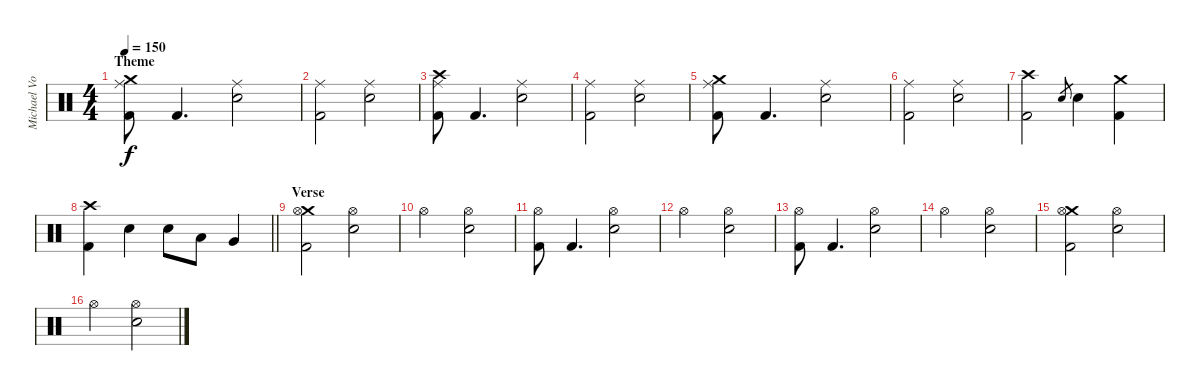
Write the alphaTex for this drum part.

\track ("Michael Von Knorring" "Michael Vo") {instrument percussion}
\staff {score}
\articulation defaults
\ts (4 4)
\section ("" "Theme")
\tempo 150
\clef neutral
\ks c
("Crash medium (hit)" "Ride (middle)" "Kick (hit) 2").8{dy f} "Kick (hit) 2".4{d} ("Ride (middle)" "Snare (hit) 2").2 |
("Ride (middle)" "Kick (hit) 2").2 ("Ride (middle)" "Snare (hit) 2").2 |
("Crash high (hit)" "Ride (middle)" "Kick (hit) 2").8 "Kick (hit) 2".4{d} ("Ride (middle)" "Snare (hit) 2").2 |
("Ride (middle)" "Kick (hit) 2").2 ("Ride (middle)" "Snare (hit) 2").2 |
("Crash medium (hit)" "Ride (middle)" "Kick (hit) 2").8 "Kick (hit) 2".4{d} ("Ride (middle)" "Snare (hit) 2").2 |
("Ride (middle)" "Kick (hit) 2").2 ("Ride (middle)" "Snare (hit) 2").2 |
("Crash high (hit)" "Kick (hit) 2").2 "Snare (hit) 2".8{gr} "Snare (hit) 2".4 ("Crash medium (hit)" "Kick (hit) 2").4 |
\barLineRight lightlight
("Crash high (hit)" "Kick (hit) 2").4 "Snare (hit) 2".4 "Snare (hit) 2".8 "Low Tom (hit)".8 "Very Low Tom (hit)".4 |
\section ("" "Verse")
("Crash medium (hit)" "Hi-Hat (open)" "Kick (hit) 2").2 ("Hi-Hat (open)" "Snare (hit) 2").2 |
"Hi-Hat (open)".2 ("Hi-Hat (open)" "Snare (hit) 2").2 |
("Hi-Hat (open)" "Kick (hit) 2").8 "Kick (hit) 2".4{d} ("Hi-Hat (open)" "Snare (hit) 2").2 |
"Hi-Hat (open)".2 ("Hi-Hat (open)" "Snare (hit) 2").2 |
("Hi-Hat (open)" "Kick (hit) 2").8 "Kick (hit) 2".4{d} ("Hi-Hat (open)" "Snare (hit) 2").2 |
"Hi-Hat (open)".2 ("Hi-Hat (open)" "Snare (hit) 2").2 |
("Crash medium (hit)" "Hi-Hat (open)" "Kick (hit) 2").2 ("Hi-Hat (open)" "Snare (hit) 2").2 |
"Hi-Hat (open)".2 ("Hi-Hat (open)" "Snare (hit) 2").2
